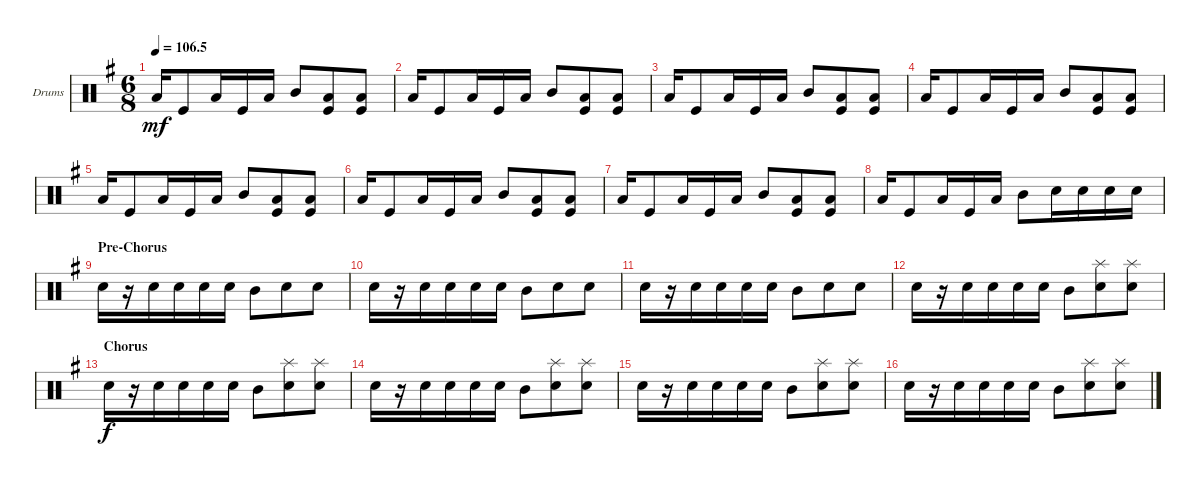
\defaultSystemsLayout 4
\bracketExtendMode groupsimilarinstruments
\firstSystemTrackNameOrientation horizontal
\otherSystemsTrackNameOrientation horizontal
\track ("Drumkit" "Drums") {instrument percussion}
\staff {score}
\articulation defaults
\ts (6 8)
\tempo
106.5
\accidentals auto
\clef neutral
\ottava regular
\simile none
\scale
0.333333
\ks g "Low Tom (hit)".16{dy mf} "Kick (hit)".8 "Low Tom (hit)".16 "Kick (hit)".16 "Low Tom (hit)".16 "Mid Tom (hit)".8
("Low Tom (hit)" "Kick (hit)").8 ("Low Tom (hit)" "Kick (hit)").8 |
\scale
0.333333 "Low Tom (hit)".16 "Kick (hit)".8 "Low Tom (hit)".16 "Kick (hit)".16 "Low Tom (hit)".16 "Mid Tom (hit)".8 ("Low Tom (hit)" "Kick (hit)").8 ("Low Tom (hit)" "Kick (hit)").8 |
\scale
0.333333 "Low Tom (hit)".16 "Kick (hit)".8 "Low Tom (hit)".16 "Kick (hit)".16 "Low Tom (hit)".16 "Mid Tom (hit)".8 ("Low Tom (hit)" "Kick (hit)").8 ("Low Tom (hit)" "Kick (hit)").8 |
\scale
0.333333 "Low Tom (hit)".16 "Kick (hit)".8 "Low Tom (hit)".16 "Kick (hit)".16 "Low Tom (hit)".16 "Mid Tom (hit)".8 ("Low Tom (hit)" "Kick (hit)").8 ("Low Tom (hit)" "Kick (hit)").8 |
\scale
0.333333 "Low Tom (hit)".16 "Kick (hit)".8 "Low Tom (hit)".16 "Kick (hit)".16 "Low Tom (hit)".16 "Mid Tom (hit)".8 ("Low Tom (hit)" "Kick (hit)").8 ("Low Tom (hit)" "Kick (hit)").8 |
\scale
0.333333 "Low Tom (hit)".16 "Kick (hit)".8 "Low Tom (hit)".16 "Kick (hit)".16 "Low Tom (hit)".16 "Mid Tom (hit)".8 ("Low Tom (hit)" "Kick (hit)").8 ("Low Tom (hit)" "Kick (hit)").8 |
\scale
0.333333 "Low Tom (hit)".16 "Kick (hit)".8 "Low Tom (hit)".16 "Kick (hit)".16 "Low Tom (hit)".16 "Mid Tom (hit)".8 ("Low Tom (hit)" "Kick (hit)").8 ("Low Tom (hit)" "Kick (hit)").8 |
\scale
0.333333 "Low Tom (hit)".16 "Kick (hit)".8 "Low Tom (hit)".16 "Kick (hit)".16 "Low Tom (hit)".16 "Mid Tom (hit)".8 "Snare (hit) 2".16 "Snare (hit) 2".16 "Snare (hit) 2".16 "Snare (hit) 2".16 |
\section ("" "Pre-Chorus")
\scale
0.333333 "Snare (hit) 2".16 r.16 "Snare (hit) 2".16 "Snare (hit) 2".16 "Snare (hit) 2".16 "Snare (hit) 2".16 "Mid Tom (hit)".8 "Snare (hit) 2".8 "Snare (hit) 2".8 |
\scale
0.333333 "Snare (hit) 2".16 r.16 "Snare (hit) 2".16 "Snare (hit) 2".16 "Snare (hit) 2".16 "Snare (hit) 2".16 "Mid Tom (hit)".8 "Snare (hit) 2".8 "Snare (hit) 2".8 |
\scale
0.333333 "Snare (hit) 2".16 r.16 "Snare (hit) 2".16 "Snare (hit) 2".16 "Snare (hit) 2".16 "Snare (hit) 2".16 "Mid Tom (hit)".8 "Snare (hit) 2".8 "Snare (hit) 2".8 |
\scale
0.333333 "Snare (hit) 2".16 r.16 "Snare (hit) 2".16 "Snare (hit) 2".16 "Snare (hit) 2".16 "Snare (hit) 2".16 "Mid Tom (hit)".8 ("Snare (hit) 2" "Splash (hit)").8 ("Snare (hit) 2" "Splash (hit)").8 |
\section ("" "Chorus")
\scale
0.333333 "Snare (hit) 2".16{dy f} r.16 "Snare (hit) 2".16 "Snare (hit) 2".16 "Snare (hit) 2".16 "Snare (hit) 2".16 "Mid Tom (hit)".8 ("Snare (hit) 2" "Splash (hit)").8 ("Snare (hit) 2" "Splash (hit)").8 |
\scale
0.333333 "Snare (hit) 2".16 r.16 "Snare (hit) 2".16 "Snare (hit) 2".16 "Snare (hit) 2".16 "Snare (hit) 2".16 "Mid Tom (hit)".8 ("Snare (hit) 2" "Splash (hit)").8 ("Snare (hit) 2" "Splash (hit)").8 |
\scale
0.333333 "Snare (hit) 2".16 r.16 "Snare (hit) 2".16 "Snare (hit) 2".16 "Snare (hit) 2".16 "Snare (hit) 2".16 "Mid Tom (hit)".8 ("Snare (hit) 2" "Splash (hit)").8 ("Snare (hit) 2" "Splash (hit)").8 |
\scale
0.333333 "Snare (hit) 2".16 r.16 "Snare (hit) 2".16 "Snare (hit) 2".16 "Snare (hit) 2".16 "Snare (hit) 2".16 "Mid Tom (hit)".8 ("Snare (hit) 2" "Splash (hit)").8 ("Snare (hit) 2" "Splash (hit)").8
